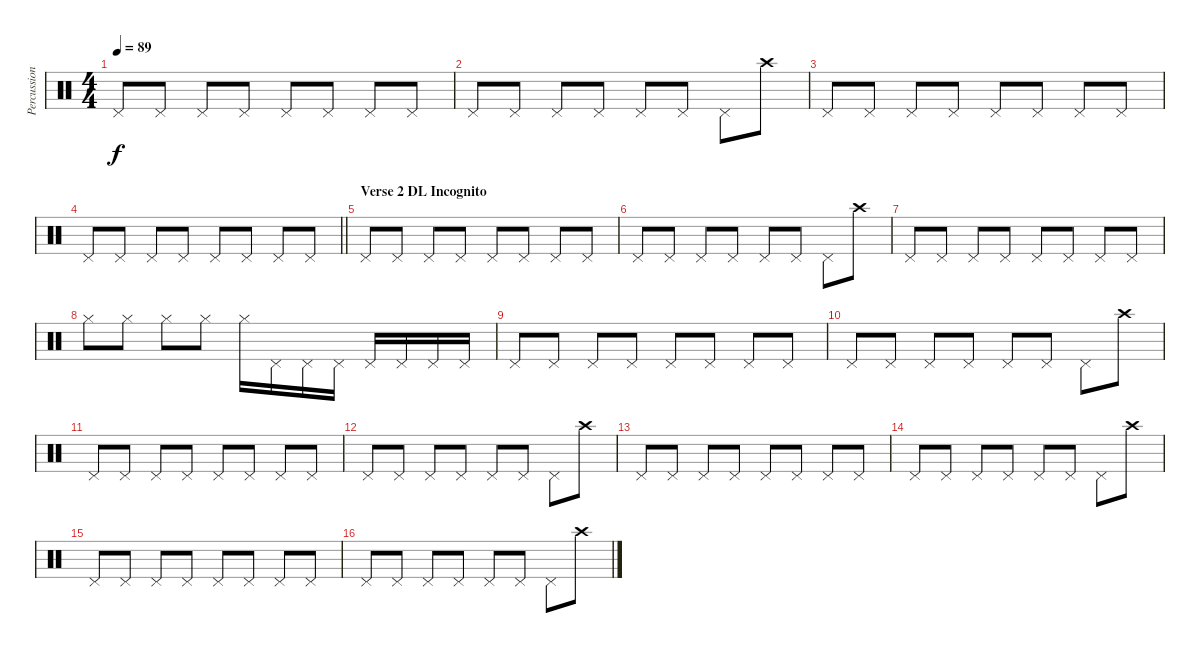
\track ("Percussion" "Percussion") {instrument percussion}
\staff {score}
\articulation defaults
\ts (4 4)
\tempo 89
\clef neutral
\ks c "Pedal Hi-Hat (hit)".8{dy f} "Pedal Hi-Hat (hit)".8 "Pedal Hi-Hat (hit)".8 "Pedal Hi-Hat (hit)".8 "Pedal Hi-Hat (hit)".8 "Pedal Hi-Hat (hit)".8 "Pedal Hi-Hat (hit)".8 "Pedal Hi-Hat (hit)".8
|
"Pedal Hi-Hat (hit)".8 "Pedal Hi-Hat (hit)".8 "Pedal Hi-Hat (hit)".8 "Pedal Hi-Hat (hit)".8 "Pedal Hi-Hat (hit)".8 "Pedal Hi-Hat (hit)".8 "Pedal Hi-Hat (hit)".8 "Crash high (hit)".8 |
"Pedal Hi-Hat (hit)".8 "Pedal Hi-Hat (hit)".8 "Pedal Hi-Hat (hit)".8 "Pedal Hi-Hat (hit)".8 "Pedal Hi-Hat (hit)".8 "Pedal Hi-Hat (hit)".8 "Pedal Hi-Hat (hit)".8 "Pedal Hi-Hat (hit)".8 |
\barLineRight lightlight "Pedal Hi-Hat (hit)".8 "Pedal Hi-Hat (hit)".8 "Pedal Hi-Hat (hit)".8 "Pedal Hi-Hat (hit)".8 "Pedal Hi-Hat (hit)".8 "Pedal Hi-Hat (hit)".8 "Pedal Hi-Hat (hit)".8 "Pedal Hi-Hat (hit)".8
|
\section ("" "Verse 2 DL Incognito")
"Pedal Hi-Hat (hit)".8 "Pedal Hi-Hat (hit)".8 "Pedal Hi-Hat (hit)".8 "Pedal Hi-Hat (hit)".8 "Pedal Hi-Hat (hit)".8 "Pedal Hi-Hat (hit)".8 "Pedal Hi-Hat (hit)".8 "Pedal Hi-Hat (hit)".8 |
"Pedal Hi-Hat (hit)".8 "Pedal Hi-Hat (hit)".8 "Pedal Hi-Hat (hit)".8 "Pedal Hi-Hat (hit)".8 "Pedal Hi-Hat (hit)".8 "Pedal Hi-Hat (hit)".8 "Pedal Hi-Hat (hit)".8 "Crash high (hit)".8 |
"Pedal Hi-Hat (hit)".8 "Pedal Hi-Hat (hit)".8 "Pedal Hi-Hat (hit)".8 "Pedal Hi-Hat (hit)".8 "Pedal Hi-Hat (hit)".8 "Pedal Hi-Hat (hit)".8 "Pedal Hi-Hat (hit)".8 "Pedal Hi-Hat (hit)".8 |
"Hi-Hat (closed)".8 "Hi-Hat (closed)".8 "Hi-Hat (closed)".8 "Hi-Hat (closed)".8 "Hi-Hat (closed)".16 "Pedal Hi-Hat (hit)".16 "Pedal Hi-Hat (hit)".16 "Pedal Hi-Hat (hit)".16 "Pedal Hi-Hat (hit)".16 "Pedal Hi-Hat (hit)".16 "Pedal Hi-Hat (hit)".16 "Pedal Hi-Hat (hit)".16 |
"Pedal Hi-Hat (hit)".8 "Pedal Hi-Hat (hit)".8 "Pedal Hi-Hat (hit)".8 "Pedal Hi-Hat (hit)".8 "Pedal Hi-Hat (hit)".8 "Pedal Hi-Hat (hit)".8 "Pedal Hi-Hat (hit)".8 "Pedal Hi-Hat (hit)".8 |
"Pedal Hi-Hat (hit)".8 "Pedal Hi-Hat (hit)".8 "Pedal Hi-Hat (hit)".8 "Pedal Hi-Hat (hit)".8 "Pedal Hi-Hat (hit)".8 "Pedal Hi-Hat (hit)".8 "Pedal Hi-Hat (hit)".8 "Crash high (hit)".8 |
"Pedal Hi-Hat (hit)".8 "Pedal Hi-Hat (hit)".8 "Pedal Hi-Hat (hit)".8 "Pedal Hi-Hat (hit)".8 "Pedal Hi-Hat (hit)".8 "Pedal Hi-Hat (hit)".8 "Pedal Hi-Hat (hit)".8 "Pedal Hi-Hat (hit)".8 |
"Pedal Hi-Hat (hit)".8 "Pedal Hi-Hat (hit)".8 "Pedal Hi-Hat (hit)".8 "Pedal Hi-Hat (hit)".8 "Pedal Hi-Hat (hit)".8 "Pedal Hi-Hat (hit)".8 "Pedal Hi-Hat (hit)".8 "Crash high (hit)".8 |
"Pedal Hi-Hat (hit)".8 "Pedal Hi-Hat (hit)".8 "Pedal Hi-Hat (hit)".8 "Pedal Hi-Hat (hit)".8 "Pedal Hi-Hat (hit)".8 "Pedal Hi-Hat (hit)".8 "Pedal Hi-Hat (hit)".8 "Pedal Hi-Hat (hit)".8 |
"Pedal Hi-Hat (hit)".8 "Pedal Hi-Hat (hit)".8 "Pedal Hi-Hat (hit)".8 "Pedal Hi-Hat (hit)".8 "Pedal Hi-Hat (hit)".8 "Pedal Hi-Hat (hit)".8 "Pedal Hi-Hat (hit)".8 "Crash high (hit)".8 |
"Pedal Hi-Hat (hit)".8 "Pedal Hi-Hat (hit)".8 "Pedal Hi-Hat (hit)".8 "Pedal Hi-Hat (hit)".8 "Pedal Hi-Hat (hit)".8 "Pedal Hi-Hat (hit)".8 "Pedal Hi-Hat (hit)".8 "Pedal Hi-Hat (hit)".8 |
"Pedal Hi-Hat (hit)".8 "Pedal Hi-Hat (hit)".8 "Pedal Hi-Hat (hit)".8 "Pedal Hi-Hat (hit)".8 "Pedal Hi-Hat (hit)".8 "Pedal Hi-Hat (hit)".8 "Pedal Hi-Hat (hit)".8 "Crash high (hit)".8
